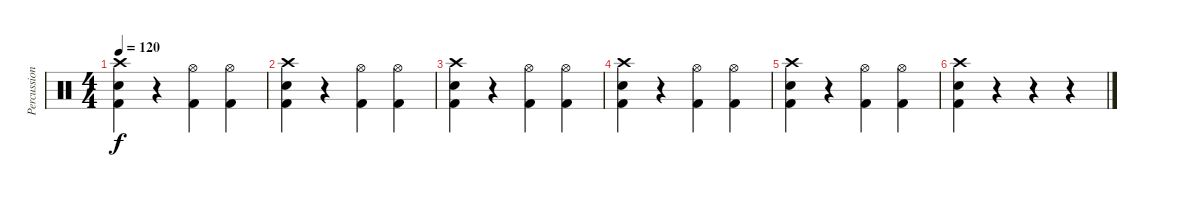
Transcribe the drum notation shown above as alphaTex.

\track ("Percussions" "Percussion") {instrument percussion}
\staff {score}
\articulation defaults
\ts (4 4)
\tempo 120
\clef neutral
\ks c
("Snare (hit) 2" "Kick (hit) 2" "Crash high (hit)").4{dy f} r.4 ("Hi-Hat (open)" "Kick (hit) 2").4 ("Hi-Hat (open)" "Kick (hit) 2").4 |
("Snare (hit) 2" "Kick (hit) 2" "Crash high (hit)").4 r.4 ("Hi-Hat (open)" "Kick (hit) 2").4 ("Hi-Hat (open)" "Kick (hit) 2").4 |
("Snare (hit) 2" "Kick (hit) 2" "Crash high (hit)").4 r.4 ("Hi-Hat (open)" "Kick (hit) 2").4 ("Hi-Hat (open)" "Kick (hit) 2").4 |
("Snare (hit) 2" "Kick (hit) 2" "Crash high (hit)").4 r.4 ("Hi-Hat (open)" "Kick (hit) 2").4 ("Hi-Hat (open)" "Kick (hit) 2").4 |
("Snare (hit) 2" "Kick (hit) 2" "Crash high (hit)").4 r.4 ("Hi-Hat (open)" "Kick (hit) 2").4 ("Hi-Hat (open)" "Kick (hit) 2").4 |
("Snare (hit) 2" "Kick (hit) 2" "Crash high (hit)").4 r.4 r.4 r.4
